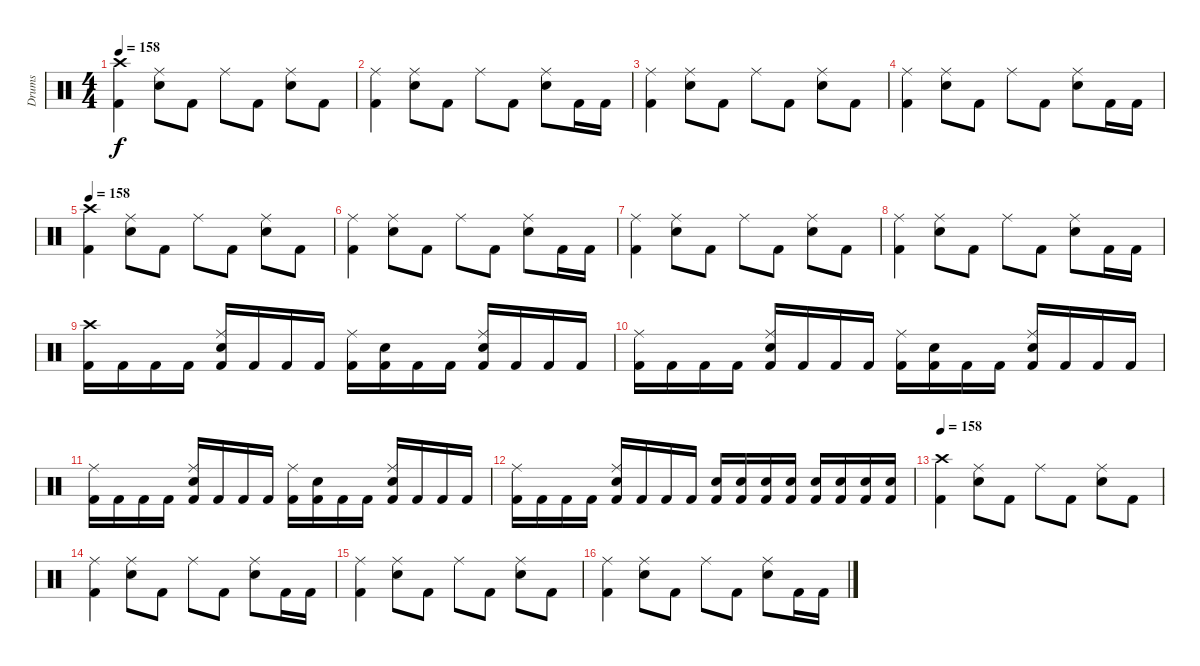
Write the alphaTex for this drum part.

\track ("Drums" "Drums") {instrument percussion}
\staff {score}
\articulation defaults
\ts (4 4)
\tempo 158
\clef neutral
\ks c
("Crash high (hit)" "Kick (hit) 2").4{dy f} ("Ride (middle)" "Snare (hit) 2").8 "Kick (hit) 2".8 "Ride (middle)".8 "Kick (hit) 2".8 ("Ride (middle)" "Snare (hit) 2").8 "Kick (hit) 2".8 |
("Ride (middle)" "Kick (hit) 2").4 ("Ride (middle)" "Snare (hit) 2").8 "Kick (hit) 2".8 "Ride (middle)".8 "Kick (hit) 2".8 ("Ride (middle)" "Snare (hit) 2").8 "Kick (hit) 2".16 "Kick (hit) 2".16 |
("Ride (middle)" "Kick (hit) 2").4 ("Ride (middle)" "Snare (hit) 2").8 "Kick (hit) 2".8 "Ride (middle)".8 "Kick (hit) 2".8 ("Ride (middle)" "Snare (hit) 2").8 "Kick (hit) 2".8 |
("Ride (middle)" "Kick (hit) 2").4 ("Ride (middle)" "Snare (hit) 2").8 "Kick (hit) 2".8 "Ride (middle)".8 "Kick (hit) 2".8 ("Ride (middle)" "Snare (hit) 2").8 "Kick (hit) 2".16 "Kick (hit) 2".16 |
\tempo 158
("Crash high (hit)" "Kick (hit) 2").4 ("Ride (middle)" "Snare (hit) 2").8 "Kick (hit) 2".8 "Ride (middle)".8 "Kick (hit) 2".8 ("Ride (middle)" "Snare (hit) 2").8 "Kick (hit) 2".8 |
("Ride (middle)" "Kick (hit) 2").4 ("Ride (middle)" "Snare (hit) 2").8 "Kick (hit) 2".8 "Ride (middle)".8 "Kick (hit) 2".8 ("Ride (middle)" "Snare (hit) 2").8 "Kick (hit) 2".16 "Kick (hit) 2".16 |
("Ride (middle)" "Kick (hit) 2").4 ("Ride (middle)" "Snare (hit) 2").8 "Kick (hit) 2".8 "Ride (middle)".8 "Kick (hit) 2".8 ("Ride (middle)" "Snare (hit) 2").8 "Kick (hit) 2".8 |
("Ride (middle)" "Kick (hit) 2").4 ("Ride (middle)" "Snare (hit) 2").8 "Kick (hit) 2".8 "Ride (middle)".8 "Kick (hit) 2".8 ("Ride (middle)" "Snare (hit) 2").8 "Kick (hit) 2".16 "Kick (hit) 2".16 |
("Crash high (hit)" "Kick (hit) 2").16 "Kick (hit) 2".16 "Kick (hit) 2".16 "Kick (hit) 2".16 ("Ride (middle)" "Snare (hit) 2" "Kick (hit) 2").16 "Kick (hit) 2".16 "Kick (hit) 2".16 "Kick (hit) 2".16 ("Ride (middle)" "Kick (hit) 2").16 ("Snare (hit) 2" "Kick (hit) 2").16 "Kick (hit) 2".16 "Kick (hit) 2".16 ("Ride (middle)" "Snare (hit) 2" "Kick (hit) 2").16 "Kick (hit) 2".16 "Kick (hit) 2".16 "Kick (hit) 2".16 |
("Ride (middle)" "Kick (hit) 2").16 "Kick (hit) 2".16 "Kick (hit) 2".16 "Kick (hit) 2".16 ("Ride (middle)" "Snare (hit) 2" "Kick (hit) 2").16 "Kick (hit) 2".16 "Kick (hit) 2".16 "Kick (hit) 2".16 ("Ride (middle)" "Kick (hit) 2").16 ("Snare (hit) 2" "Kick (hit) 2").16 "Kick (hit) 2".16 "Kick (hit) 2".16 ("Ride (middle)" "Snare (hit) 2" "Kick (hit) 2").16 "Kick (hit) 2".16 "Kick (hit) 2".16 "Kick (hit) 2".16 |
("Ride (middle)" "Kick (hit) 2").16 "Kick (hit) 2".16 "Kick (hit) 2".16 "Kick (hit) 2".16 ("Ride (middle)" "Snare (hit) 2" "Kick (hit) 2").16 "Kick (hit) 2".16 "Kick (hit) 2".16 "Kick (hit) 2".16 ("Ride (middle)" "Kick (hit) 2").16 ("Snare (hit) 2" "Kick (hit) 2").16 "Kick (hit) 2".16 "Kick (hit) 2".16 ("Ride (middle)" "Snare (hit) 2" "Kick (hit) 2").16 "Kick (hit) 2".16 "Kick (hit) 2".16 "Kick (hit) 2".16 |
("Ride (middle)" "Kick (hit) 2").16 "Kick (hit) 2".16 "Kick (hit) 2".16 "Kick (hit) 2".16 ("Ride (middle)" "Snare (hit) 2" "Kick (hit) 2").16 "Kick (hit) 2".16 "Kick (hit) 2".16 "Kick (hit) 2".16 ("Snare (hit) 2" "Kick (hit) 2").16 ("Snare (hit) 2" "Kick (hit) 2").16 ("Snare (hit) 2" "Kick (hit) 2").16 ("Snare (hit) 2" "Kick (hit) 2").16 ("Snare (hit) 2" "Kick (hit) 2").16 ("Snare (hit) 2" "Kick (hit) 2").16 ("Snare (hit) 2" "Kick (hit) 2").16 ("Snare (hit) 2" "Kick (hit) 2").16 |
\tempo 158
("Crash high (hit)" "Kick (hit) 2").4 ("Ride (middle)" "Snare (hit) 2").8 "Kick (hit) 2".8 "Ride (middle)".8 "Kick (hit) 2".8 ("Ride (middle)" "Snare (hit) 2").8 "Kick (hit) 2".8 |
("Ride (middle)" "Kick (hit) 2").4 ("Ride (middle)" "Snare (hit) 2").8 "Kick (hit) 2".8 "Ride (middle)".8 "Kick (hit) 2".8 ("Ride (middle)" "Snare (hit) 2").8 "Kick (hit) 2".16 "Kick (hit) 2".16 |
("Ride (middle)" "Kick (hit) 2").4 ("Ride (middle)" "Snare (hit) 2").8 "Kick (hit) 2".8 "Ride (middle)".8 "Kick (hit) 2".8 ("Ride (middle)" "Snare (hit) 2").8 "Kick (hit) 2".8 |
("Ride (middle)" "Kick (hit) 2").4 ("Ride (middle)" "Snare (hit) 2").8 "Kick (hit) 2".8 "Ride (middle)".8 "Kick (hit) 2".8 ("Ride (middle)" "Snare (hit) 2").8 "Kick (hit) 2".16 "Kick (hit) 2".16
